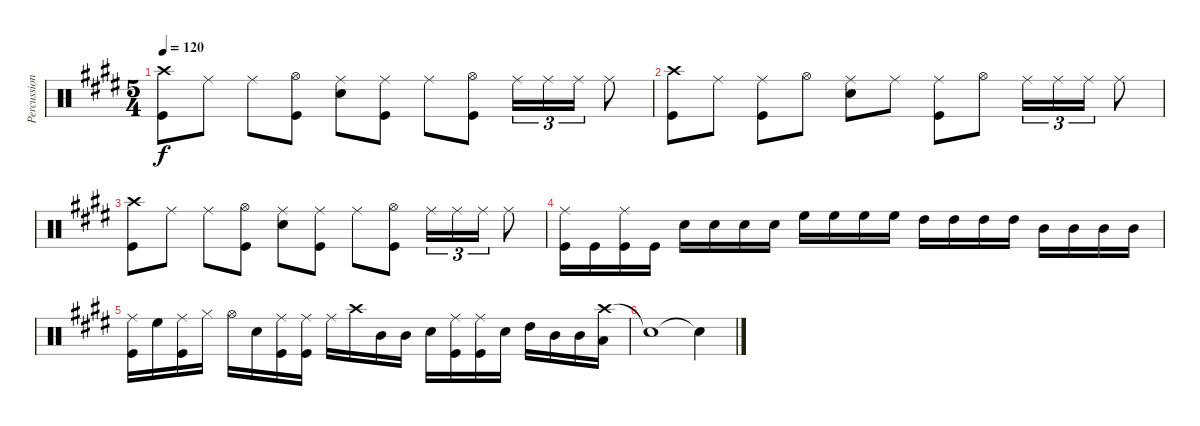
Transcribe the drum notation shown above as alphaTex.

\track ("Percussion" "Percussion") {instrument percussion}
\staff {score}
\articulation defaults
\ts (5 4)
\tempo 120
\clef neutral
\ks e
("Crash high (hit)" "Kick (hit)").8{dy f} "Ride (middle)".8 "Ride (middle)".8 ("Hi-Hat (open)" "Kick (hit)").8 ("Ride (middle)" "Snare (hit) 2").8 ("Ride (middle)" "Kick (hit)").8 "Ride (middle)".8 ("Hi-Hat (open)" "Kick (hit)").8 "Ride (middle)".16{tu (3 2)} "Ride (middle)".16{tu (3 2)} "Ride (middle)".16{tu (3 2)} "Ride (middle)".8 |
("Crash high (hit)" "Kick (hit)").8 "Ride (middle)".8 ("Ride (middle)" "Kick (hit)").8 "Hi-Hat (open)".8 ("Ride (middle)" "Snare (hit) 2").8 "Ride (middle)".8 ("Ride (middle)" "Kick (hit)").8 "Hi-Hat (open)".8 "Ride (middle)".16{tu (3 2)} "Ride (middle)".16{tu (3 2)} "Ride (middle)".16{tu (3 2)} "Ride (middle)".8 |
("Crash high (hit)" "Kick (hit)").8 "Ride (middle)".8 "Ride (middle)".8 ("Hi-Hat (open)" "Kick (hit)").8 ("Ride (middle)" "Snare (hit) 2").8 ("Ride (middle)" "Kick (hit)").8 "Ride (middle)".8 ("Hi-Hat (open)" "Kick (hit)").8 "Ride (middle)".16{tu (3 2)} "Ride (middle)".16{tu (3 2)} "Ride (middle)".16{tu (3 2)} "Ride (middle)".8 |
("Ride (middle)" "Kick (hit)").16 "Kick (hit)".16 ("Ride (middle)" "Kick (hit)").16 "Kick (hit)".16 "Snare (hit) 2".16 "Snare (hit) 2".16 "Snare (hit) 2".16 "Snare (hit) 2".16 "High Floor Tom (hit)".16 "High Floor Tom (hit)".16 "High Floor Tom (hit)".16 "High Floor Tom (hit)".16 "High Tom (hit)".16 "High Tom (hit)".16 "High Tom (hit)".16 "High Tom (hit)".16 "Mid Tom (hit)".16 "Mid Tom (hit)".16 "Mid Tom (hit)".16 "Mid Tom (hit)".16 |
("Ride (middle)" "Kick (hit)").16 "High Floor Tom (hit)".16 ("Ride (middle)" "Kick (hit)").16 "Hi-Hat (closed)".16 "Hi-Hat (open)".16 "Snare (hit) 2".16 ("Ride (middle)" "Kick (hit)").16 ("Ride (middle)" "Kick (hit)").16 "Ride (middle)".16 "Crash high (hit)".16 "Mid Tom (hit)".16 "Mid Tom (hit)".16 "Snare (hit) 2".16 ("Ride (middle)" "Kick (hit)").16 ("Ride (middle)" "Kick (hit)").16 "Snare (hit) 2".16 "High Tom (hit)".16 "Mid Tom (hit)".16 "Mid Tom (hit)".16 ("Crash high (hit)" "Low Tom (hit)").16 |
"Snare (hit)"{t}.1 "Snare (hit)"{t}.4
